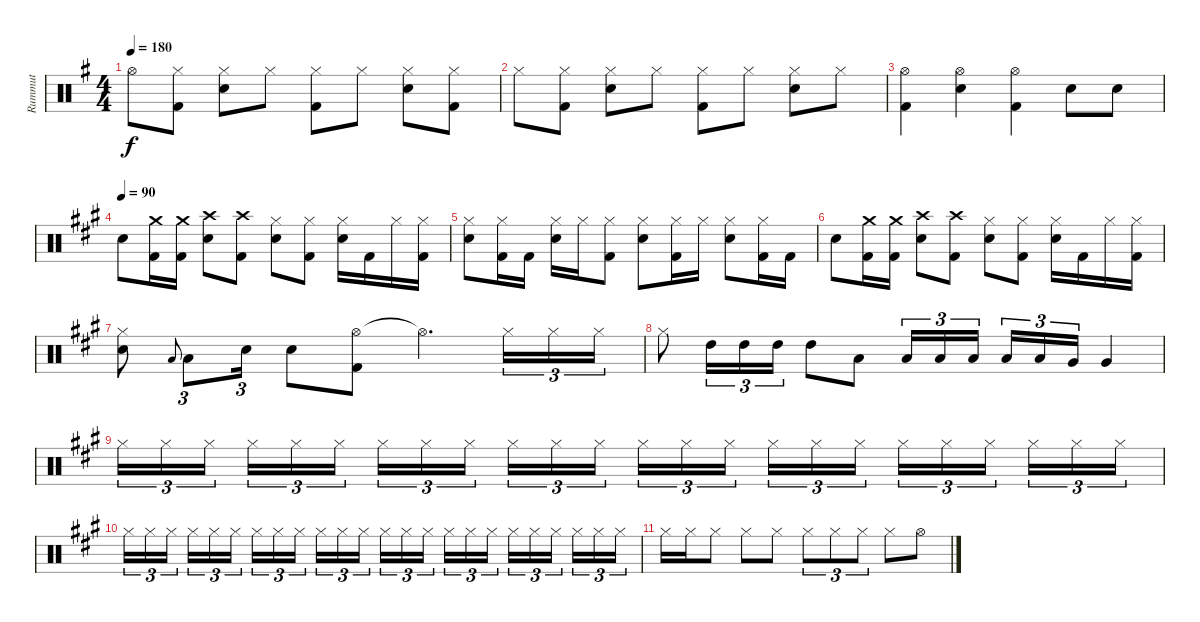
\track ("Rummut" "Rummut") {instrument percussion}
\staff {score}
\articulation defaults
\ts (4 4)
\tempo 180
\clef neutral
\ks g "Hi-Hat (open)"{t}.8{dy f}
("Hi-Hat (closed)" "Kick (hit) 2").8 ("Hi-Hat (closed)" "Snare (hit) 2").8 "Hi-Hat (closed)".8 ("Hi-Hat (closed)" "Kick (hit) 2").8 "Hi-Hat (closed)".8 ("Hi-Hat (closed)" "Snare (hit) 2").8 ("Hi-Hat (closed)" "Kick (hit) 2").8 |
"Hi-Hat (closed)".8 ("Hi-Hat (closed)" "Kick (hit) 2").8 ("Hi-Hat (closed)" "Snare (hit) 2").8 "Hi-Hat (closed)".8 ("Hi-Hat (closed)" "Kick (hit) 2").8 "Hi-Hat (closed)".8 ("Hi-Hat (closed)" "Snare (hit) 2").8 "Hi-Hat (closed)".8 |
("Hi-Hat (open)" "Kick (hit) 2").4 ("Hi-Hat (open)" "Snare (hit) 2").4 ("Hi-Hat (open)" "Kick (hit) 2").4 "Snare (hit) 2".8 "Snare (hit) 2".8 |
\tempo 90
\ks a "Snare (hit) 2".8
("Crash medium (hit)" "Kick (hit) 2").16 ("Crash medium (hit)" "Kick (hit) 2").16 ("Crash high (hit)" "Snare (hit) 2").8 ("Crash high (hit)" "Kick (hit) 2").8 ("Hi-Hat (closed)" "Snare (hit) 2").8 ("Hi-Hat (closed)" "Kick (hit) 2").8 ("Hi-Hat (closed)" "Snare (hit) 2").16 "Kick (hit) 2".16 "Hi-Hat (closed)".16 ("Hi-Hat (closed)" "Kick (hit) 2").16 |
("Hi-Hat (closed)" "Snare (hit) 2").8 ("Hi-Hat (closed)" "Kick (hit) 2").16 "Kick (hit) 2".16 ("Hi-Hat (closed)" "Snare (hit) 2").16 "Hi-Hat (closed)".16 ("Hi-Hat (closed)" "Kick (hit) 2").8 ("Hi-Hat (closed)" "Snare (hit) 2").8 ("Hi-Hat (closed)" "Kick (hit) 2").16 "Hi-Hat (closed)".16 ("Hi-Hat (closed)" "Snare (hit) 2").8 ("Hi-Hat (closed)" "Kick (hit) 2").16 "Kick (hit) 2".16 |
"Snare (hit) 2".8 ("Crash medium (hit)" "Kick (hit) 2").16 ("Crash medium (hit)" "Kick (hit) 2").16 ("Crash high (hit)" "Snare (hit) 2").8 ("Crash high (hit)" "Kick (hit) 2").8 ("Hi-Hat (closed)" "Snare (hit) 2").8 ("Hi-Hat (closed)" "Kick (hit) 2").8 ("Hi-Hat (closed)" "Snare (hit) 2").16 "Kick (hit) 2".16 "Hi-Hat (closed)".16 ("Hi-Hat (closed)" "Kick (hit) 2").16 |
("Hi-Hat (closed)" "Snare (hit) 2").8 "Low Tom (hit)".8{gr onbeat} "Low Tom (hit)".8{tu (3 2)} "Snare (hit) 2".16{tu (3 2)} "Snare (hit) 2".8 ("Hi-Hat (open)" "Kick (hit) 2").8 "Hi-Hat (open)"{t}.4{d} "Hi-Hat (closed)".16{tu (3 2)} "Hi-Hat (closed)".16{tu (3 2)} "Hi-Hat (closed)".16{tu (3 2)} |
"Hi-Hat (closed)".8 "High Tom (hit)".16{tu (3 2)} "High Tom (hit)".16{tu (3 2)} "High Tom (hit)".16{tu (3 2)} "High Tom (hit)".8 "Low Tom (hit)".8 "Low Tom (hit)".16{tu (3 2)} "Low Tom (hit)".16{tu (3 2)} "Low Tom (hit)".16{tu (3 2) beam splitsecondary} "Low Tom (hit)".16{tu (3 2)} "Low Tom (hit)".16{tu (3 2)} "Very Low Tom (hit)".16{tu (3 2)} "Very Low Tom (hit)".4 |
"Hi-Hat (closed)".16{tu (3 2)} "Hi-Hat (closed)".16{tu (3 2)} "Hi-Hat (closed)".16{tu (3 2) beam splitsecondary} "Hi-Hat (closed)".16{tu (3 2)} "Hi-Hat (closed)".16{tu (3 2)} "Hi-Hat (closed)".16{tu (3 2)} "Hi-Hat (closed)".16{tu (3 2)} "Hi-Hat (closed)".16{tu (3 2)} "Hi-Hat (closed)".16{tu (3 2) beam splitsecondary} "Hi-Hat (closed)".16{tu (3 2)} "Hi-Hat (closed)".16{tu (3 2)} "Hi-Hat (closed)".16{tu (3 2)} "Hi-Hat (closed)".16{tu (3 2)} "Hi-Hat (closed)".16{tu (3 2)} "Hi-Hat (closed)".16{tu (3 2) beam splitsecondary} "Hi-Hat (closed)".16{tu (3 2)} "Hi-Hat (closed)".16{tu (3 2)} "Hi-Hat (closed)".16{tu (3 2)} "Hi-Hat (closed)".16{tu (3 2)} "Hi-Hat (closed)".16{tu (3 2)} "Hi-Hat (closed)".16{tu (3 2) beam splitsecondary} "Hi-Hat (closed)".16{tu (3 2)} "Hi-Hat (closed)".16{tu (3 2)} "Hi-Hat (closed)".16{tu (3 2)} |
"Hi-Hat (closed)".16{tu (3 2)} "Hi-Hat (closed)".16{tu (3 2)} "Hi-Hat (closed)".16{tu (3 2) beam splitsecondary} "Hi-Hat (closed)".16{tu (3 2)} "Hi-Hat (closed)".16{tu (3 2)} "Hi-Hat (closed)".16{tu (3 2)} "Hi-Hat (closed)".16{tu (3 2)} "Hi-Hat (closed)".16{tu (3 2)} "Hi-Hat (closed)".16{tu (3 2) beam splitsecondary} "Hi-Hat (closed)".16{tu (3 2)} "Hi-Hat (closed)".16{tu (3 2)} "Hi-Hat (closed)".16{tu (3 2)} "Hi-Hat (closed)".16{tu (3 2)} "Hi-Hat (closed)".16{tu (3 2)} "Hi-Hat (closed)".16{tu (3 2) beam splitsecondary} "Hi-Hat (closed)".16{tu (3 2)} "Hi-Hat (closed)".16{tu (3 2)} "Hi-Hat (closed)".16{tu (3 2)} "Hi-Hat (closed)".16{tu (3 2)} "Hi-Hat (closed)".16{tu (3 2)} "Hi-Hat (closed)".16{tu (3 2) beam splitsecondary} "Hi-Hat (closed)".16{tu (3 2)} "Hi-Hat (closed)".16{tu (3 2)} "Hi-Hat (closed)".16{tu (3 2)} |
"Hi-Hat (closed)".16 "Hi-Hat (closed)".16 "Hi-Hat (closed)".8 "Hi-Hat (closed)".8 "Hi-Hat (closed)".8 "Hi-Hat (closed)".8{tu (3 2)} "Hi-Hat (closed)".8{tu (3 2)} "Hi-Hat (closed)".8{tu (3 2)} "Hi-Hat (closed)".8 "Hi-Hat (open)".8
